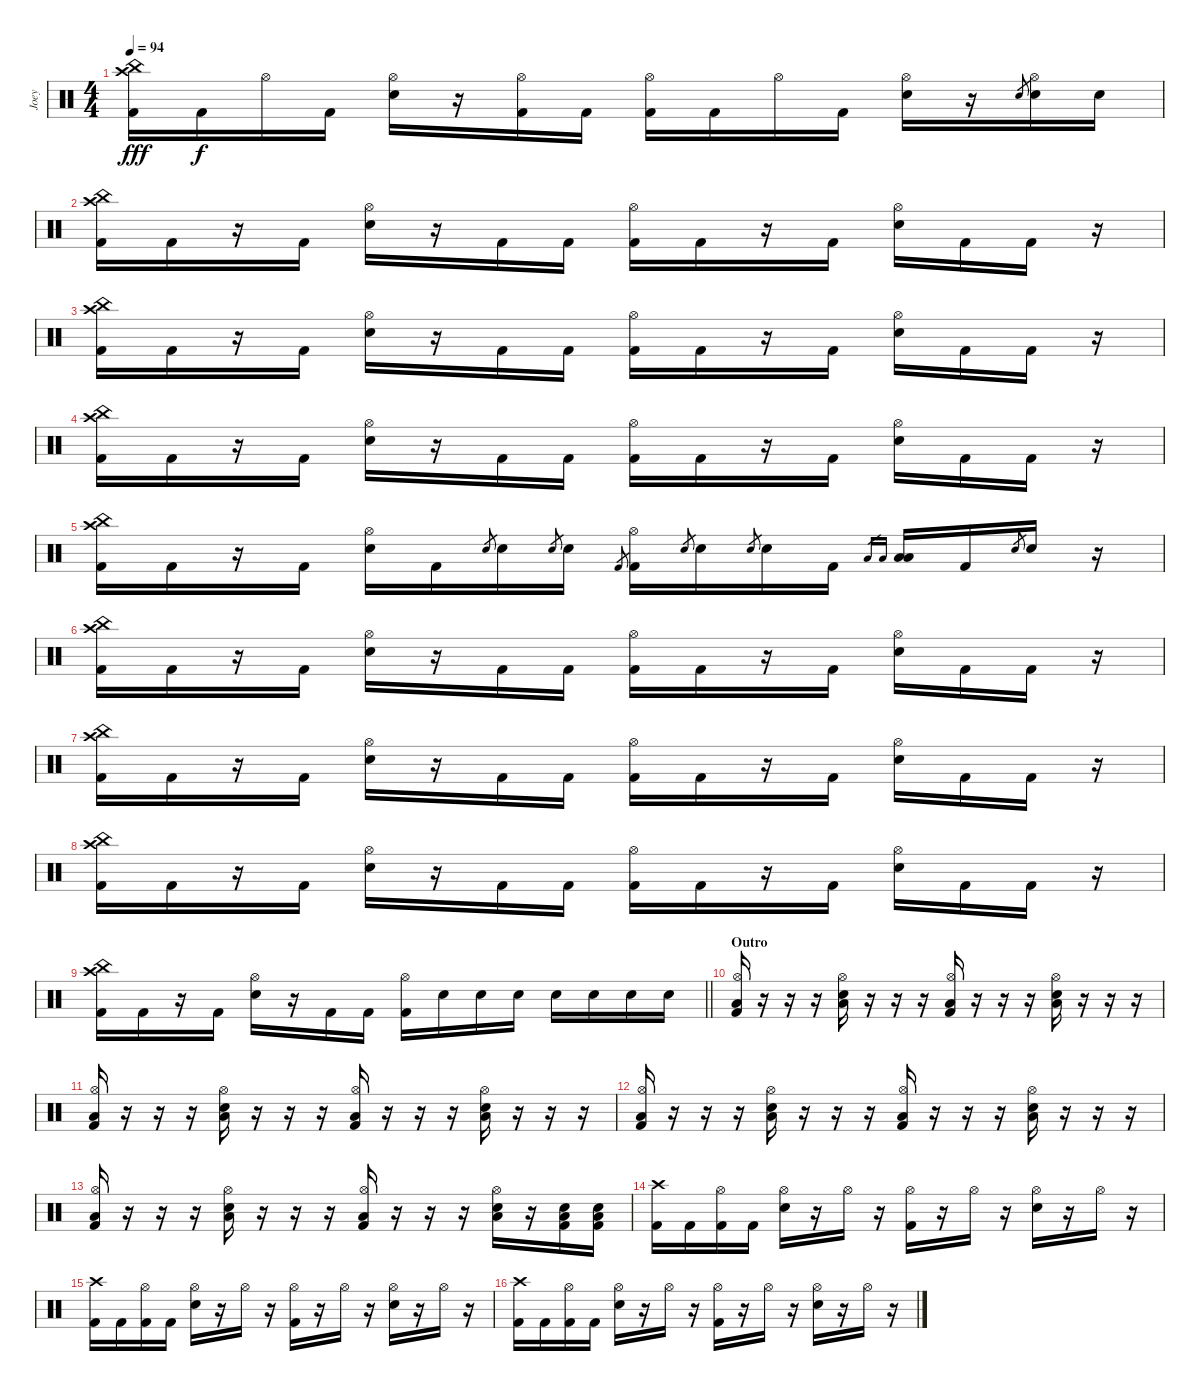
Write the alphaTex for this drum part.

\track ("Joey" "Joey") {instrument percussion}
\staff {score}
\articulation defaults
\ts (4 4)
\tempo 94
\clef neutral
\ks c
("Crash high (hit)" "China (hit)" "Kick (hit) 2").16{dy fff} "Kick (hit) 2".16{dy f} "Hi-Hat (open)".16 "Kick (hit) 2".16 ("Hi-Hat (open)" "Electric Snare (hit)").16 r.16 ("Hi-Hat (open)" "Kick (hit) 2").16 "Kick (hit) 2".16 ("Hi-Hat (open)" "Kick (hit) 2").16 "Kick (hit) 2".16 "Hi-Hat (open)".16 "Kick (hit) 2".16 ("Hi-Hat (open)" "Electric Snare (hit)").16 r.16 "Electric Snare (hit)".8{gr} ("Hi-Hat (open)" "Electric Snare (hit)").16 "Electric Snare (hit)".16 |
("China (hit)" "Crash high (hit)" "Kick (hit) 2").16 "Kick (hit) 2".16 r.16 "Kick (hit) 2".16 ("Hi-Hat (open)" "Electric Snare (hit)").16 r.16 "Kick (hit) 2".16 "Kick (hit) 2".16 ("Hi-Hat (open)" "Kick (hit) 2").16 "Kick (hit) 2".16 r.16 "Kick (hit) 2".16 ("Hi-Hat (open)" "Electric Snare (hit)").16 "Kick (hit) 2".16 "Kick (hit) 2".16 r.16 |
("China (hit)" "Crash high (hit)" "Kick (hit) 2").16 "Kick (hit) 2".16 r.16 "Kick (hit) 2".16 ("Hi-Hat (open)" "Electric Snare (hit)").16 r.16 "Kick (hit) 2".16 "Kick (hit) 2".16 ("Hi-Hat (open)" "Kick (hit) 2").16 "Kick (hit) 2".16 r.16 "Kick (hit) 2".16 ("Hi-Hat (open)" "Electric Snare (hit)").16 "Kick (hit) 2".16 "Kick (hit) 2".16 r.16 |
("China (hit)" "Crash high (hit)" "Kick (hit) 2").16 "Kick (hit) 2".16 r.16 "Kick (hit) 2".16 ("Hi-Hat (open)" "Electric Snare (hit)").16 r.16 "Kick (hit) 2".16 "Kick (hit) 2".16 ("Hi-Hat (open)" "Kick (hit) 2").16 "Kick (hit) 2".16 r.16 "Kick (hit) 2".16 ("Hi-Hat (open)" "Electric Snare (hit)").16 "Kick (hit) 2".16 "Kick (hit) 2".16 r.16 |
("China (hit)" "Crash high (hit)" "Kick (hit) 2").16 "Kick (hit) 2".16 r.16 "Kick (hit) 2".16 ("Hi-Hat (open)" "Electric Snare (hit)").16 "Kick (hit) 2".16 "Electric Snare (hit)".8{gr} "Electric Snare (hit)".16 "Electric Snare (hit)".8{gr} "Electric Snare (hit)".16 "Kick (hit) 2".8{gr} ("Hi-Hat (open)" "Kick (hit) 2").16 "Electric Snare (hit)".8{gr} "Electric Snare (hit)".16 "Electric Snare (hit)".8{gr} "Electric Snare (hit)".16 "Kick (hit) 2".16 "Low Floor Tom (hit)".16{gr} "Low Floor Tom (hit)".16{gr} ("Low Floor Tom (hit)" "Low Floor Tom (hit)").16 "Kick (hit) 2".16 "Electric Snare (hit)".8{gr} "Electric Snare (hit)".16 r.16 |
("China (hit)" "Crash high (hit)" "Kick (hit) 2").16 "Kick (hit) 2".16 r.16 "Kick (hit) 2".16 ("Hi-Hat (open)" "Electric Snare (hit)").16 r.16 "Kick (hit) 2".16 "Kick (hit) 2".16 ("Hi-Hat (open)" "Kick (hit) 2").16 "Kick (hit) 2".16 r.16 "Kick (hit) 2".16 ("Hi-Hat (open)" "Electric Snare (hit)").16 "Kick (hit) 2".16 "Kick (hit) 2".16 r.16 |
("China (hit)" "Crash high (hit)" "Kick (hit) 2").16 "Kick (hit) 2".16 r.16 "Kick (hit) 2".16 ("Hi-Hat (open)" "Electric Snare (hit)").16 r.16 "Kick (hit) 2".16 "Kick (hit) 2".16 ("Hi-Hat (open)" "Kick (hit) 2").16 "Kick (hit) 2".16 r.16 "Kick (hit) 2".16 ("Hi-Hat (open)" "Electric Snare (hit)").16 "Kick (hit) 2".16 "Kick (hit) 2".16 r.16 |
("China (hit)" "Crash high (hit)" "Kick (hit) 2").16 "Kick (hit) 2".16 r.16 "Kick (hit) 2".16 ("Hi-Hat (open)" "Electric Snare (hit)").16 r.16 "Kick (hit) 2".16 "Kick (hit) 2".16 ("Hi-Hat (open)" "Kick (hit) 2").16 "Kick (hit) 2".16 r.16 "Kick (hit) 2".16 ("Hi-Hat (open)" "Electric Snare (hit)").16 "Kick (hit) 2".16 "Kick (hit) 2".16 r.16 |
\barLineRight lightlight
("China (hit)" "Crash high (hit)" "Kick (hit) 2").16 "Kick (hit) 2".16 r.16 "Kick (hit) 2".16 ("Hi-Hat (open)" "Electric Snare (hit)").16 r.16 "Kick (hit) 2".16 "Kick (hit) 2".16 ("Hi-Hat (open)" "Kick (hit) 2").16 "Electric Snare (hit)".16 "Electric Snare (hit)".16 "Electric Snare (hit)".16 "Electric Snare (hit)".16 "Electric Snare (hit)".16 "Electric Snare (hit)".16 "Electric Snare (hit)".16 |
\section ("" "Outro")
("Hi-Hat (open)" "Low Floor Tom (hit)" "Kick (hit) 2").16 r.16 r.16 r.16 ("Hi-Hat (open)" "Low Floor Tom (hit)" "Electric Snare (hit)").16 r.16 r.16 r.16 ("Hi-Hat (open)" "Low Floor Tom (hit)" "Kick (hit) 2").16 r.16 r.16 r.16 ("Hi-Hat (open)" "Low Floor Tom (hit)" "Electric Snare (hit)").16 r.16 r.16 r.16 |
("Hi-Hat (open)" "Low Floor Tom (hit)" "Kick (hit) 2").16 r.16 r.16 r.16 ("Hi-Hat (open)" "Low Floor Tom (hit)" "Electric Snare (hit)").16 r.16 r.16 r.16 ("Hi-Hat (open)" "Low Floor Tom (hit)" "Kick (hit) 2").16 r.16 r.16 r.16 ("Hi-Hat (open)" "Low Floor Tom (hit)" "Electric Snare (hit)").16 r.16 r.16 r.16 |
("Hi-Hat (open)" "Low Floor Tom (hit)" "Kick (hit) 2").16 r.16 r.16 r.16 ("Hi-Hat (open)" "Low Floor Tom (hit)" "Electric Snare (hit)").16 r.16 r.16 r.16 ("Hi-Hat (open)" "Low Floor Tom (hit)" "Kick (hit) 2").16 r.16 r.16 r.16 ("Hi-Hat (open)" "Low Floor Tom (hit)" "Electric Snare (hit)").16 r.16 r.16 r.16 |
("Hi-Hat (open)" "Low Floor Tom (hit)" "Kick (hit) 2").16 r.16 r.16 r.16 ("Hi-Hat (open)" "Low Floor Tom (hit)" "Electric Snare (hit)").16 r.16 r.16 r.16 ("Hi-Hat (open)" "Low Floor Tom (hit)" "Kick (hit) 2").16 r.16 r.16 r.16 ("Hi-Hat (open)" "Low Floor Tom (hit)" "Electric Snare (hit)").16 r.16 ("Low Floor Tom (hit)" "Kick (hit) 2" "Electric Snare (hit)").16 ("Low Floor Tom (hit)" "Kick (hit) 2" "Electric Snare (hit)").16 |
("Crash high (hit)" "Kick (hit) 2").16 "Kick (hit) 2".16 ("Hi-Hat (open)" "Kick (hit) 2").16 "Kick (hit) 2".16 ("Hi-Hat (open)" "Electric Snare (hit)").16 r.16 "Hi-Hat (open)".16 r.16 ("Hi-Hat (open)" "Kick (hit) 2").16 r.16 "Hi-Hat (open)".16 r.16 ("Hi-Hat (open)" "Electric Snare (hit)").16 r.16 "Hi-Hat (open)".16 r.16 |
("Crash high (hit)" "Kick (hit) 2").16 "Kick (hit) 2".16 ("Hi-Hat (open)" "Kick (hit) 2").16 "Kick (hit) 2".16 ("Hi-Hat (open)" "Electric Snare (hit)").16 r.16 "Hi-Hat (open)".16 r.16 ("Hi-Hat (open)" "Kick (hit) 2").16 r.16 "Hi-Hat (open)".16 r.16 ("Hi-Hat (open)" "Electric Snare (hit)").16 r.16 "Hi-Hat (open)".16 r.16 |
("Crash high (hit)" "Kick (hit) 2").16 "Kick (hit) 2".16 ("Hi-Hat (open)" "Kick (hit) 2").16 "Kick (hit) 2".16 ("Hi-Hat (open)" "Electric Snare (hit)").16 r.16 "Hi-Hat (open)".16 r.16 ("Hi-Hat (open)" "Kick (hit) 2").16 r.16 "Hi-Hat (open)".16 r.16 ("Hi-Hat (open)" "Electric Snare (hit)").16 r.16 "Hi-Hat (open)".16 r.16
